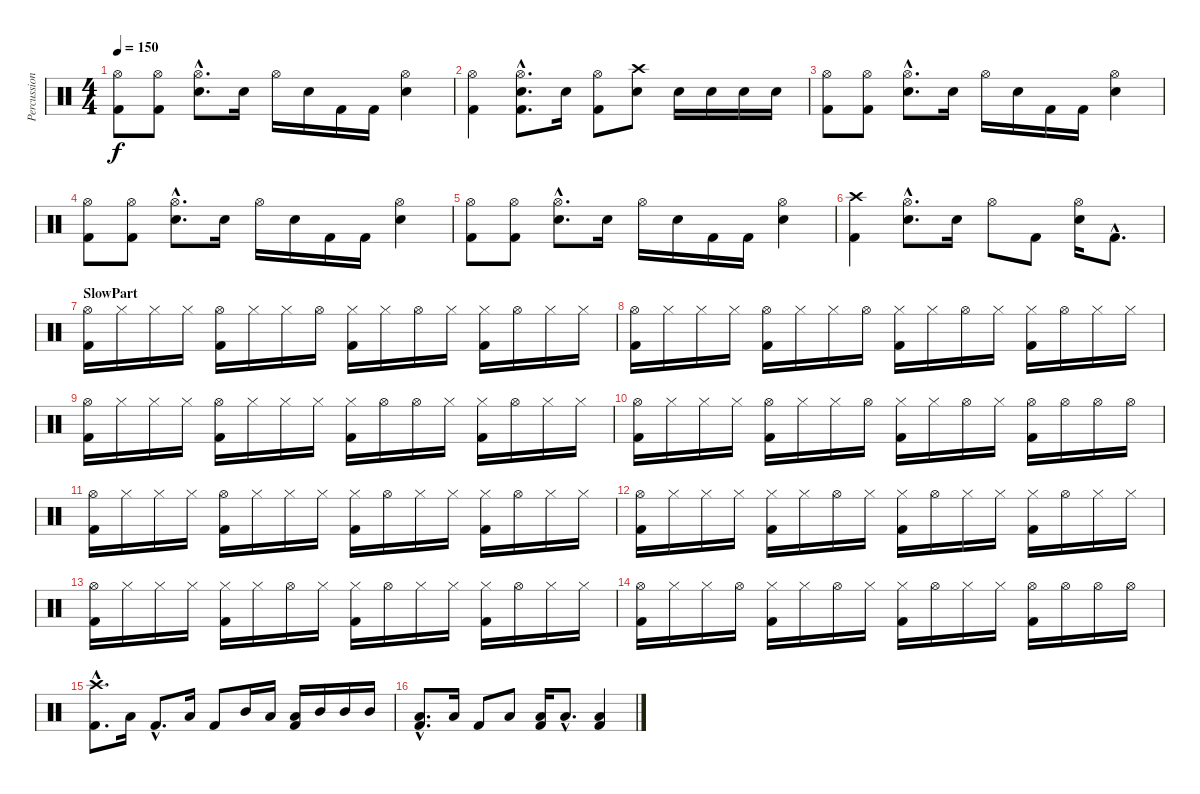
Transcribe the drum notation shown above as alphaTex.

\track ("Percussion" "Percussion") {instrument percussion}
\staff {score}
\articulation defaults
\ts (4 4)
\tempo 150
\clef neutral
\ks c
("Hi-Hat (open)" "Kick (hit) 2").8{dy f} ("Hi-Hat (open)" "Kick (hit) 2").8 ("Hi-Hat (open)"{hac} "Electric Snare (hit)"{hac}).8{d} "Electric Snare (hit)".16 "Hi-Hat (open)".16 "Electric Snare (hit)".16 "Kick (hit) 2".16 "Kick (hit) 2".16 ("Hi-Hat (open)" "Electric Snare (hit)").4 |
("Hi-Hat (open)" "Kick (hit) 2").4 ("Hi-Hat (open)"{hac} "Electric Snare (hit)"{hac} "Kick (hit) 2"{hac}).8{d} "Electric Snare (hit)".16 ("Hi-Hat (open)" "Kick (hit) 2").8 ("Crash high (hit)" "Electric Snare (hit)").8 "Electric Snare (hit)".16 "Electric Snare (hit)".16 "Electric Snare (hit)".16 "Electric Snare (hit)".16 |
("Hi-Hat (open)" "Kick (hit) 2").8 ("Hi-Hat (open)" "Kick (hit) 2").8 ("Hi-Hat (open)"{hac} "Electric Snare (hit)"{hac}).8{d} "Electric Snare (hit)".16 "Hi-Hat (open)".16 "Electric Snare (hit)".16 "Kick (hit) 2".16 "Kick (hit) 2".16 ("Hi-Hat (open)" "Electric Snare (hit)").4 |
("Hi-Hat (open)" "Kick (hit) 2").8 ("Hi-Hat (open)" "Kick (hit) 2").8 ("Hi-Hat (open)"{hac} "Electric Snare (hit)"{hac}).8{d} "Electric Snare (hit)".16 "Hi-Hat (open)".16 "Electric Snare (hit)".16 "Kick (hit) 2".16 "Kick (hit) 2".16 ("Hi-Hat (open)" "Electric Snare (hit)").4 |
("Hi-Hat (open)" "Kick (hit) 2").8 ("Hi-Hat (open)" "Kick (hit) 2").8 ("Hi-Hat (open)"{hac} "Electric Snare (hit)"{hac}).8{d} "Electric Snare (hit)".16 "Hi-Hat (open)".16 "Electric Snare (hit)".16 "Kick (hit) 2".16 "Kick (hit) 2".16 ("Hi-Hat (open)" "Electric Snare (hit)").4 |
("Crash high (hit)" "Kick (hit) 2").4 ("Hi-Hat (open)"{hac} "Electric Snare (hit)"{hac}).8{d} "Electric Snare (hit)".16 "Hi-Hat (open)".8 "Kick (hit) 2".8 ("Hi-Hat (open)" "Electric Snare (hit)").16 "Kick (hit) 2"{hac}.8{d} |
\section ("" "SlowPart")
("Hi-Hat (open)" "Kick (hit) 2").16 "Hi-Hat (closed)".16 "Hi-Hat (closed)".16 "Hi-Hat (closed)".16 ("Hi-Hat (open)" "Kick (hit) 2").16 "Hi-Hat (closed)".16 "Hi-Hat (closed)".16 "Hi-Hat (open)".16 ("Hi-Hat (closed)" "Kick (hit) 2").16 "Hi-Hat (closed)".16 "Hi-Hat (open)".16 "Hi-Hat (closed)".16 ("Hi-Hat (closed)" "Kick (hit) 2").16 "Hi-Hat (open)".16 "Hi-Hat (closed)".16 "Hi-Hat (closed)".16 |
("Hi-Hat (open)" "Kick (hit) 2").16 "Hi-Hat (closed)".16 "Hi-Hat (closed)".16 "Hi-Hat (closed)".16 ("Hi-Hat (open)" "Kick (hit) 2").16 "Hi-Hat (closed)".16 "Hi-Hat (closed)".16 "Hi-Hat (open)".16 ("Hi-Hat (closed)" "Kick (hit) 2").16 "Hi-Hat (closed)".16 "Hi-Hat (open)".16 "Hi-Hat (closed)".16 ("Hi-Hat (closed)" "Kick (hit) 2").16 "Hi-Hat (open)".16 "Hi-Hat (closed)".16 "Hi-Hat (closed)".16 |
("Hi-Hat (open)" "Kick (hit) 2").16 "Hi-Hat (closed)".16 "Hi-Hat (closed)".16 "Hi-Hat (closed)".16 ("Hi-Hat (open)" "Kick (hit) 2").16 "Hi-Hat (closed)".16 "Hi-Hat (closed)".16 "Hi-Hat (closed)".16 ("Hi-Hat (closed)" "Kick (hit) 2").16 "Hi-Hat (open)".16 "Hi-Hat (open)".16 "Hi-Hat (closed)".16 ("Hi-Hat (closed)" "Kick (hit) 2").16 "Hi-Hat (open)".16 "Hi-Hat (closed)".16 "Hi-Hat (closed)".16 |
("Hi-Hat (open)" "Kick (hit) 2").16 "Hi-Hat (closed)".16 "Hi-Hat (closed)".16 "Hi-Hat (closed)".16 ("Hi-Hat (open)" "Kick (hit) 2").16 "Hi-Hat (closed)".16 "Hi-Hat (closed)".16 "Hi-Hat (open)".16 ("Hi-Hat (closed)" "Kick (hit) 2").16 "Hi-Hat (closed)".16 "Hi-Hat (open)".16 "Hi-Hat (closed)".16 ("Hi-Hat (open)" "Kick (hit) 2").16 "Hi-Hat (open)".16 "Hi-Hat (open)".16 "Hi-Hat (open)".16 |
("Hi-Hat (open)" "Kick (hit) 2").16 "Hi-Hat (closed)".16 "Hi-Hat (closed)".16 "Hi-Hat (closed)".16 ("Hi-Hat (open)" "Kick (hit) 2").16 "Hi-Hat (closed)".16 "Hi-Hat (closed)".16 "Hi-Hat (closed)".16 ("Hi-Hat (closed)" "Kick (hit) 2").16 "Hi-Hat (open)".16 "Hi-Hat (closed)".16 "Hi-Hat (closed)".16 ("Hi-Hat (closed)" "Kick (hit) 2").16 "Hi-Hat (open)".16 "Hi-Hat (closed)".16 "Hi-Hat (closed)".16 |
("Hi-Hat (open)" "Kick (hit) 2").16 "Hi-Hat (closed)".16 "Hi-Hat (closed)".16 "Hi-Hat (closed)".16 ("Hi-Hat (closed)" "Kick (hit) 2").16 "Hi-Hat (closed)".16 "Hi-Hat (open)".16 "Hi-Hat (closed)".16 ("Hi-Hat (closed)" "Kick (hit) 2").16 "Hi-Hat (open)".16 "Hi-Hat (closed)".16 "Hi-Hat (closed)".16 ("Hi-Hat (closed)" "Kick (hit) 2").16 "Hi-Hat (open)".16 "Hi-Hat (closed)".16 "Hi-Hat (closed)".16 |
("Hi-Hat (open)" "Kick (hit) 2").16 "Hi-Hat (closed)".16 "Hi-Hat (closed)".16 "Hi-Hat (closed)".16 ("Hi-Hat (closed)" "Kick (hit) 2").16 "Hi-Hat (closed)".16 "Hi-Hat (open)".16 "Hi-Hat (closed)".16 ("Hi-Hat (closed)" "Kick (hit) 2").16 "Hi-Hat (open)".16 "Hi-Hat (closed)".16 "Hi-Hat (closed)".16 ("Hi-Hat (closed)" "Kick (hit) 2").16 "Hi-Hat (open)".16 "Hi-Hat (closed)".16 "Hi-Hat (closed)".16 |
("Hi-Hat (open)" "Kick (hit) 2").16 "Hi-Hat (closed)".16 "Hi-Hat (closed)".16 "Hi-Hat (open)".16 ("Hi-Hat (closed)" "Kick (hit) 2").16 "Hi-Hat (closed)".16 "Hi-Hat (open)".16 "Hi-Hat (closed)".16 ("Hi-Hat (closed)" "Kick (hit) 2").16 "Hi-Hat (open)".16 "Hi-Hat (closed)".16 "Hi-Hat (closed)".16 ("Hi-Hat (open)" "Kick (hit) 2").16 "Hi-Hat (open)".16 "Hi-Hat (open)".16 "Hi-Hat (open)".16 |
("Crash high (hit)"{hac} "Kick (hit) 2"{hac}).8{d} "Low Tom (hit)".16 "Kick (hit) 2"{hac}.8{d} "Low Tom (hit)".16 "Kick (hit) 2".8 "Mid Tom (hit)".16 "Low Tom (hit)".16 ("Low Tom (hit)" "Kick (hit) 2").16 "Mid Tom (hit)".16 "Mid Tom (hit)".16 "Mid Tom (hit)".16 |
("Low Tom (hit)"{hac} "Kick (hit) 2"{hac}).8{d} "Low Tom (hit)".16 "Kick (hit) 2".8 "Low Tom (hit)".8 ("Low Tom (hit)" "Kick (hit) 2").16 "Low Tom (hit)"{hac}.8{d} ("Low Tom (hit)" "Kick (hit) 2").4
